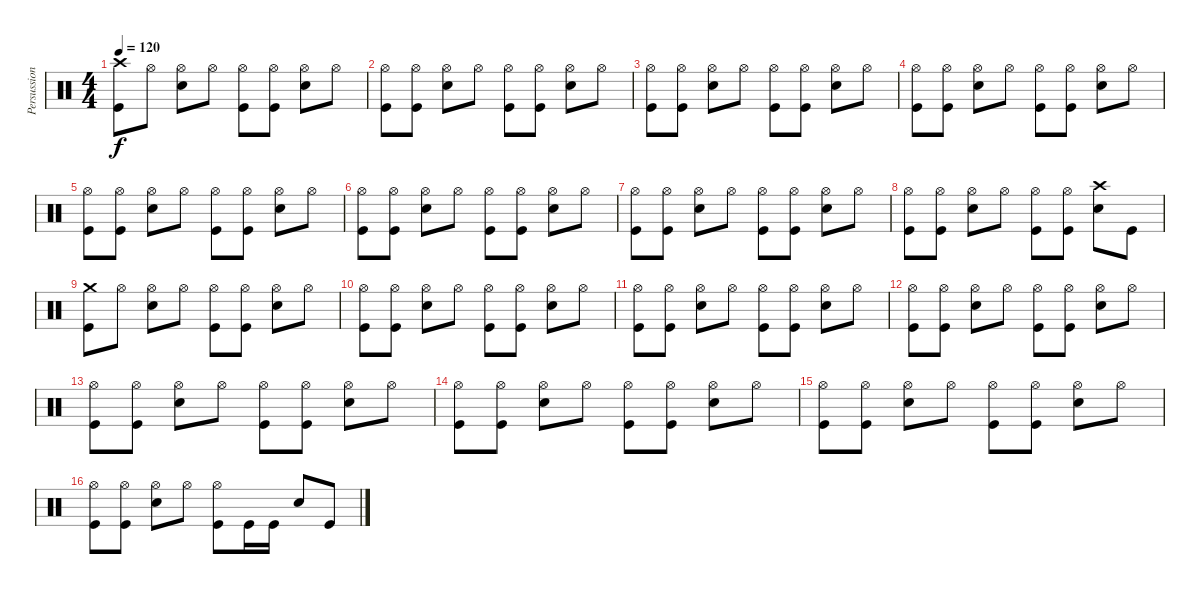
\track ("Persussion" "Persussion") {instrument percussion}
\staff {score}
\articulation defaults
\ts (4 4)
\tempo 120
\clef neutral
\ks c
("Crash high (hit)" "Kick (hit)").8{dy f} "Hi-Hat (open)".8 ("Hi-Hat (open)" "Snare (hit) 2").8 "Hi-Hat (open)".8 ("Hi-Hat (open)" "Kick (hit)").8 ("Hi-Hat (open)" "Kick (hit)").8 ("Hi-Hat (open)" "Snare (hit) 2").8 "Hi-Hat (open)".8 |
("Hi-Hat (open)" "Kick (hit)").8 ("Hi-Hat (open)" "Kick (hit)").8 ("Hi-Hat (open)" "Snare (hit) 2").8 "Hi-Hat (open)".8 ("Hi-Hat (open)" "Kick (hit)").8 ("Hi-Hat (open)" "Kick (hit)").8 ("Hi-Hat (open)" "Snare (hit) 2").8 "Hi-Hat (open)".8 |
("Hi-Hat (open)" "Kick (hit)").8 ("Hi-Hat (open)" "Kick (hit)").8 ("Hi-Hat (open)" "Snare (hit) 2").8 "Hi-Hat (open)".8 ("Hi-Hat (open)" "Kick (hit)").8 ("Hi-Hat (open)" "Kick (hit)").8 ("Hi-Hat (open)" "Snare (hit) 2").8 "Hi-Hat (open)".8 |
("Hi-Hat (open)" "Kick (hit)").8 ("Hi-Hat (open)" "Kick (hit)").8 ("Hi-Hat (open)" "Snare (hit) 2").8 "Hi-Hat (open)".8 ("Hi-Hat (open)" "Kick (hit)").8 ("Hi-Hat (open)" "Kick (hit)").8 ("Hi-Hat (open)" "Snare (hit) 2").8 "Hi-Hat (open)".8 |
("Hi-Hat (open)" "Kick (hit)").8 ("Hi-Hat (open)" "Kick (hit)").8 ("Hi-Hat (open)" "Snare (hit) 2").8 "Hi-Hat (open)".8 ("Hi-Hat (open)" "Kick (hit)").8 ("Hi-Hat (open)" "Kick (hit)").8 ("Hi-Hat (open)" "Snare (hit) 2").8 "Hi-Hat (open)".8 |
("Hi-Hat (open)" "Kick (hit)").8 ("Hi-Hat (open)" "Kick (hit)").8 ("Hi-Hat (open)" "Snare (hit) 2").8 "Hi-Hat (open)".8 ("Hi-Hat (open)" "Kick (hit)").8 ("Hi-Hat (open)" "Kick (hit)").8 ("Hi-Hat (open)" "Snare (hit) 2").8 "Hi-Hat (open)".8 |
("Hi-Hat (open)" "Kick (hit)").8 ("Hi-Hat (open)" "Kick (hit)").8 ("Hi-Hat (open)" "Snare (hit) 2").8 "Hi-Hat (open)".8 ("Hi-Hat (open)" "Kick (hit)").8 ("Hi-Hat (open)" "Kick (hit)").8 ("Hi-Hat (open)" "Snare (hit) 2").8 "Hi-Hat (open)".8 |
("Hi-Hat (open)" "Kick (hit)").8 ("Hi-Hat (open)" "Kick (hit)").8 ("Hi-Hat (open)" "Snare (hit) 2").8 "Hi-Hat (open)".8 ("Hi-Hat (open)" "Kick (hit)").8 ("Hi-Hat (open)" "Kick (hit)").8 ("Crash high (hit)" "Snare (hit) 2").8 "Kick (hit)".8 |
("Crash medium (hit)" "Kick (hit)").8 "Hi-Hat (open)".8 ("Hi-Hat (open)" "Snare (hit) 2").8 "Hi-Hat (open)".8 ("Hi-Hat (open)" "Kick (hit)").8 ("Hi-Hat (open)" "Kick (hit)").8 ("Hi-Hat (open)" "Snare (hit) 2").8 "Hi-Hat (open)".8 |
("Hi-Hat (open)" "Kick (hit)").8 ("Hi-Hat (open)" "Kick (hit)").8 ("Hi-Hat (open)" "Snare (hit) 2").8 "Hi-Hat (open)".8 ("Hi-Hat (open)" "Kick (hit)").8 ("Hi-Hat (open)" "Kick (hit)").8 ("Hi-Hat (open)" "Snare (hit) 2").8 "Hi-Hat (open)".8 |
("Hi-Hat (open)" "Kick (hit)").8 ("Hi-Hat (open)" "Kick (hit)").8 ("Hi-Hat (open)" "Snare (hit) 2").8 "Hi-Hat (open)".8 ("Hi-Hat (open)" "Kick (hit)").8 ("Hi-Hat (open)" "Kick (hit)").8 ("Hi-Hat (open)" "Snare (hit) 2").8 "Hi-Hat (open)".8 |
("Hi-Hat (open)" "Kick (hit)").8 ("Hi-Hat (open)" "Kick (hit)").8 ("Hi-Hat (open)" "Snare (hit) 2").8 "Hi-Hat (open)".8 ("Hi-Hat (open)" "Kick (hit)").8 ("Hi-Hat (open)" "Kick (hit)").8 ("Hi-Hat (open)" "Snare (hit) 2").8 "Hi-Hat (open)".8 |
("Hi-Hat (open)" "Kick (hit)").8 ("Hi-Hat (open)" "Kick (hit)").8 ("Hi-Hat (open)" "Snare (hit) 2").8 "Hi-Hat (open)".8 ("Hi-Hat (open)" "Kick (hit)").8 ("Hi-Hat (open)" "Kick (hit)").8 ("Hi-Hat (open)" "Snare (hit) 2").8 "Hi-Hat (open)".8 |
("Hi-Hat (open)" "Kick (hit)").8 ("Hi-Hat (open)" "Kick (hit)").8 ("Hi-Hat (open)" "Snare (hit) 2").8 "Hi-Hat (open)".8 ("Hi-Hat (open)" "Kick (hit)").8 ("Hi-Hat (open)" "Kick (hit)").8 ("Hi-Hat (open)" "Snare (hit) 2").8 "Hi-Hat (open)".8 |
("Hi-Hat (open)" "Kick (hit)").8 ("Hi-Hat (open)" "Kick (hit)").8 ("Hi-Hat (open)" "Snare (hit) 2").8 "Hi-Hat (open)".8 ("Hi-Hat (open)" "Kick (hit)").8 ("Hi-Hat (open)" "Kick (hit)").8 ("Hi-Hat (open)" "Snare (hit) 2").8 "Hi-Hat (open)".8 |
("Hi-Hat (open)" "Kick (hit)").8 ("Hi-Hat (open)" "Kick (hit)").8 ("Hi-Hat (open)" "Snare (hit) 2").8 "Hi-Hat (open)".8 ("Hi-Hat (open)" "Kick (hit)").8 "Kick (hit)".16 "Kick (hit)".16 "Snare (hit) 2".8 "Kick (hit)".8
